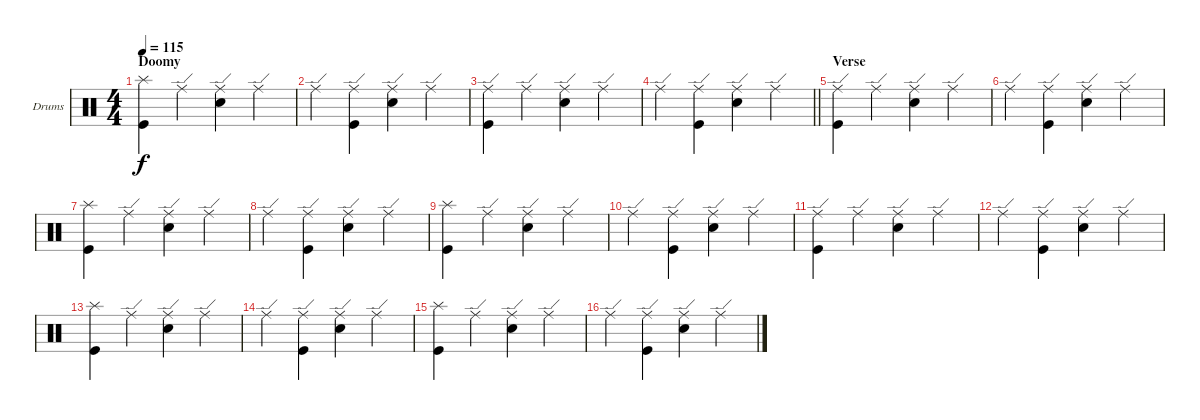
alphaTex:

\bracketExtendMode groupsimilarinstruments
\firstSystemTrackNameOrientation horizontal
\otherSystemsTrackNameOrientation horizontal
\track ("Drumkit" "Drums") {instrument percussion}
\staff {score}
\articulation defaults
\ts (4 4)
\section ("" "Doomy")
\tempo 115
\clef neutral
\ks c
("Splash (hit)" "Kick (hit)").4{dy f} "Ride (edge)".4 ("Ride (edge)" "Snare (hit) 2").4 "Ride (edge)".4 |
"Ride (edge)".4 ("Ride (edge)" "Kick (hit)").4 ("Ride (edge)" "Snare (hit) 2").4 "Ride (edge)".4 |
("Ride (edge)" "Kick (hit)").4 "Ride (edge)".4 ("Ride (edge)" "Snare (hit) 2").4 "Ride (edge)".4 |
\barLineRight lightlight "Ride (edge)".4
("Ride (edge)" "Kick (hit)").4 ("Ride (edge)" "Snare (hit) 2").4 "Ride (edge)".4 |
\section ("" "Verse")
("Ride (edge)" "Kick (hit)").4 "Ride (edge)".4 ("Ride (edge)" "Snare (hit) 2").4 "Ride (edge)".4 |
"Ride (edge)".4 ("Ride (edge)" "Kick (hit)").4 ("Ride (edge)" "Snare (hit) 2").4 "Ride (edge)".4 |
("Splash (hit)" "Kick (hit)").4 "Ride (edge)".4 ("Ride (edge)" "Snare (hit) 2").4 "Ride (edge)".4 |
"Ride (edge)".4 ("Ride (edge)" "Kick (hit)").4 ("Ride (edge)" "Snare (hit) 2").4 "Ride (edge)".4 |
("Splash (hit)" "Kick (hit)").4 "Ride (edge)".4 ("Ride (edge)" "Snare (hit) 2").4 "Ride (edge)".4 |
"Ride (edge)".4 ("Ride (edge)" "Kick (hit)").4 ("Ride (edge)" "Snare (hit) 2").4 "Ride (edge)".4 |
("Ride (edge)" "Kick (hit)").4 "Ride (edge)".4 ("Ride (edge)" "Snare (hit) 2").4 "Ride (edge)".4 |
"Ride (edge)".4 ("Ride (edge)" "Kick (hit)").4 ("Ride (edge)" "Snare (hit) 2").4 "Ride (edge)".4 |
("Splash (hit)" "Kick (hit)").4 "Ride (edge)".4 ("Ride (edge)" "Snare (hit) 2").4 "Ride (edge)".4 |
"Ride (edge)".4 ("Ride (edge)" "Kick (hit)").4 ("Ride (edge)" "Snare (hit) 2").4 "Ride (edge)".4 |
("Splash (hit)" "Kick (hit)").4 "Ride (edge)".4 ("Ride (edge)" "Snare (hit) 2").4 "Ride (edge)".4 |
"Ride (edge)".4 ("Ride (edge)" "Kick (hit)").4 ("Ride (edge)" "Snare (hit) 2").4 "Ride (edge)".4
